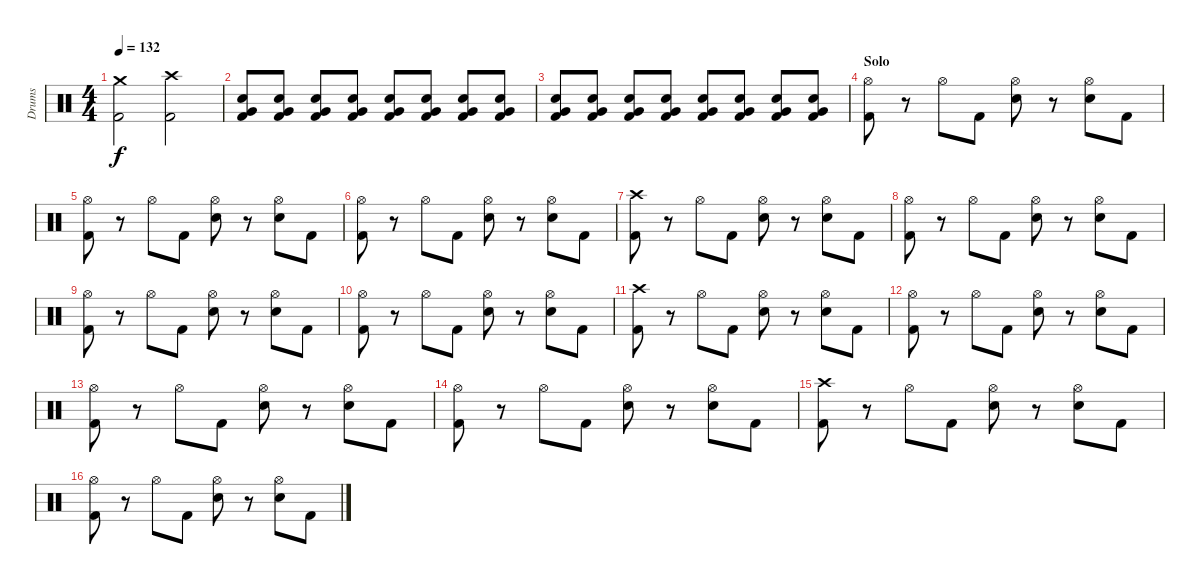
\track ("Drums" "Drums") {instrument percussion}
\staff {score}
\articulation defaults
\ts (4 4)
\tempo 132
\clef neutral
\ks c
("Crash medium (hit)" "Kick (hit) 2").2{dy f} ("Crash high (hit)" "Kick (hit) 2").2 |
("Very Low Tom (hit)" "Snare (hit) 2" "Kick (hit) 2").8 ("Very Low Tom (hit)" "Snare (hit) 2" "Kick (hit) 2").8 ("Very Low Tom (hit)" "Snare (hit) 2" "Kick (hit) 2").8 ("Very Low Tom (hit)" "Snare (hit) 2" "Kick (hit) 2").8 ("Very Low Tom (hit)" "Snare (hit) 2" "Kick (hit) 2").8 ("Very Low Tom (hit)" "Snare (hit) 2" "Kick (hit) 2").8 ("Very Low Tom (hit)" "Snare (hit) 2" "Kick (hit) 2").8 ("Very Low Tom (hit)" "Snare (hit) 2" "Kick (hit) 2").8 |
("Very Low Tom (hit)" "Snare (hit) 2" "Kick (hit) 2").8 ("Very Low Tom (hit)" "Snare (hit) 2" "Kick (hit) 2").8 ("Very Low Tom (hit)" "Snare (hit) 2" "Kick (hit) 2").8 ("Very Low Tom (hit)" "Snare (hit) 2" "Kick (hit) 2").8 ("Very Low Tom (hit)" "Snare (hit) 2" "Kick (hit) 2").8 ("Very Low Tom (hit)" "Snare (hit) 2" "Kick (hit) 2").8 ("Very Low Tom (hit)" "Snare (hit) 2" "Kick (hit) 2").8 ("Very Low Tom (hit)" "Snare (hit) 2" "Kick (hit) 2").8 |
\section ("" "Solo")
("Hi-Hat (open)" "Kick (hit) 2").8 r.8 "Hi-Hat (open)".8 "Kick (hit) 2".8 ("Hi-Hat (open)" "Snare (hit) 2").8 r.8 ("Hi-Hat (open)" "Snare (hit) 2").8 "Kick (hit) 2".8 |
("Hi-Hat (open)" "Kick (hit) 2").8 r.8 "Hi-Hat (open)".8 "Kick (hit) 2".8 ("Hi-Hat (open)" "Snare (hit) 2").8 r.8 ("Hi-Hat (open)" "Snare (hit) 2").8 "Kick (hit) 2".8 |
("Hi-Hat (open)" "Kick (hit) 2").8 r.8 "Hi-Hat (open)".8 "Kick (hit) 2".8 ("Hi-Hat (open)" "Snare (hit) 2").8 r.8 ("Hi-Hat (open)" "Snare (hit) 2").8 "Kick (hit) 2".8 |
("Crash high (hit)" "Kick (hit) 2").8 r.8 "Hi-Hat (open)".8 "Kick (hit) 2".8 ("Hi-Hat (open)" "Snare (hit) 2").8 r.8 ("Hi-Hat (open)" "Snare (hit) 2").8 "Kick (hit) 2".8 |
("Hi-Hat (open)" "Kick (hit) 2").8 r.8 "Hi-Hat (open)".8 "Kick (hit) 2".8 ("Hi-Hat (open)" "Snare (hit) 2").8 r.8 ("Hi-Hat (open)" "Snare (hit) 2").8 "Kick (hit) 2".8 |
("Hi-Hat (open)" "Kick (hit) 2").8 r.8 "Hi-Hat (open)".8 "Kick (hit) 2".8 ("Hi-Hat (open)" "Snare (hit) 2").8 r.8 ("Hi-Hat (open)" "Snare (hit) 2").8 "Kick (hit) 2".8 |
("Hi-Hat (open)" "Kick (hit) 2").8 r.8 "Hi-Hat (open)".8 "Kick (hit) 2".8 ("Hi-Hat (open)" "Snare (hit) 2").8 r.8 ("Hi-Hat (open)" "Snare (hit) 2").8 "Kick (hit) 2".8 |
("Crash high (hit)" "Kick (hit) 2").8 r.8 "Hi-Hat (open)".8 "Kick (hit) 2".8 ("Hi-Hat (open)" "Snare (hit) 2").8 r.8 ("Hi-Hat (open)" "Snare (hit) 2").8 "Kick (hit) 2".8 |
("Hi-Hat (open)" "Kick (hit) 2").8 r.8 "Hi-Hat (open)".8 "Kick (hit) 2".8 ("Hi-Hat (open)" "Snare (hit) 2").8 r.8 ("Hi-Hat (open)" "Snare (hit) 2").8 "Kick (hit) 2".8 |
("Hi-Hat (open)" "Kick (hit) 2").8 r.8 "Hi-Hat (open)".8 "Kick (hit) 2".8 ("Hi-Hat (open)" "Snare (hit) 2").8 r.8 ("Hi-Hat (open)" "Snare (hit) 2").8 "Kick (hit) 2".8 |
("Hi-Hat (open)" "Kick (hit) 2").8 r.8 "Hi-Hat (open)".8 "Kick (hit) 2".8 ("Hi-Hat (open)" "Snare (hit) 2").8 r.8 ("Hi-Hat (open)" "Snare (hit) 2").8 "Kick (hit) 2".8 |
("Crash high (hit)" "Kick (hit) 2").8 r.8 "Hi-Hat (open)".8 "Kick (hit) 2".8 ("Hi-Hat (open)" "Snare (hit) 2").8 r.8 ("Hi-Hat (open)" "Snare (hit) 2").8 "Kick (hit) 2".8 |
("Hi-Hat (open)" "Kick (hit) 2").8 r.8 "Hi-Hat (open)".8 "Kick (hit) 2".8 ("Hi-Hat (open)" "Snare (hit) 2").8 r.8 ("Hi-Hat (open)" "Snare (hit) 2").8 "Kick (hit) 2".8
